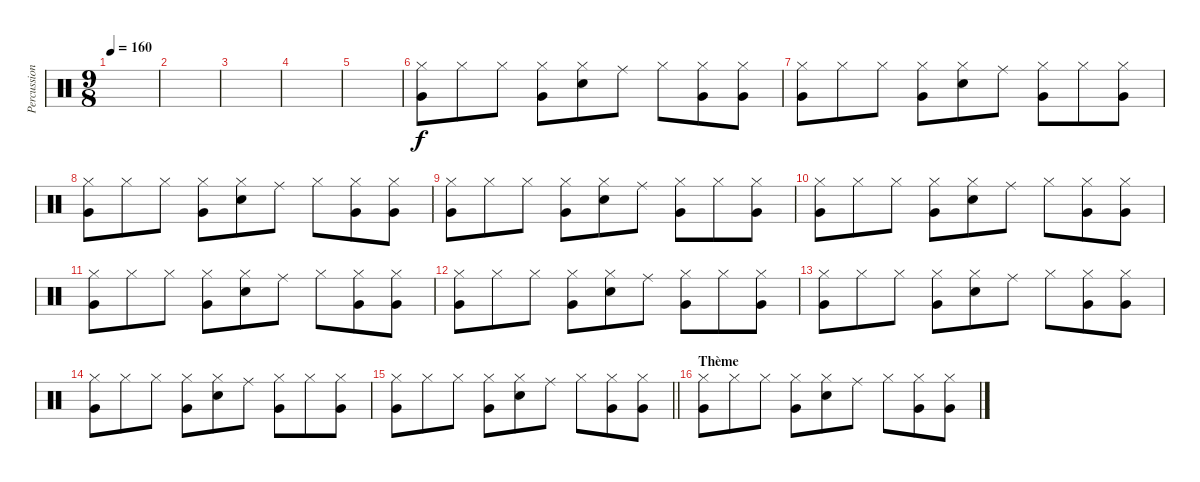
\track ("Percussions" "Percussion") {instrument percussion}
\staff {score}
\articulation defaults
\ts (9 8)
\tempo 160
\clef neutral
\ks c
|
|
|
|
|
("Hi-Hat (closed)" "Very Low Tom (hit)").8 "Hi-Hat (closed)".8 "Hi-Hat (closed)".8 ("Hi-Hat (closed)" "Very Low Tom (hit)").8 ("Hi-Hat (closed)" "Snare (hit) 2").8 "Ride (middle)".8 "Hi-Hat (closed)".8 ("Hi-Hat (closed)" "Very Low Tom (hit)").8 ("Hi-Hat (closed)" "Very Low Tom (hit)").8 |
("Hi-Hat (closed)" "Very Low Tom (hit)").8 "Hi-Hat (closed)".8 "Hi-Hat (closed)".8 ("Hi-Hat (closed)" "Very Low Tom (hit)").8 ("Hi-Hat (closed)" "Snare (hit) 2").8 "Ride (middle)".8 ("Hi-Hat (closed)" "Very Low Tom (hit)").8 "Hi-Hat (closed)".8 ("Hi-Hat (closed)" "Very Low Tom (hit)").8 |
("Hi-Hat (closed)" "Very Low Tom (hit)").8 "Hi-Hat (closed)".8 "Hi-Hat (closed)".8 ("Hi-Hat (closed)" "Very Low Tom (hit)").8 ("Hi-Hat (closed)" "Snare (hit) 2").8 "Ride (middle)".8 "Hi-Hat (closed)".8 ("Hi-Hat (closed)" "Very Low Tom (hit)").8 ("Hi-Hat (closed)" "Very Low Tom (hit)").8 |
("Hi-Hat (closed)" "Very Low Tom (hit)").8 "Hi-Hat (closed)".8 "Hi-Hat (closed)".8 ("Hi-Hat (closed)" "Very Low Tom (hit)").8 ("Hi-Hat (closed)" "Snare (hit) 2").8 "Ride (middle)".8 ("Hi-Hat (closed)" "Very Low Tom (hit)").8 "Hi-Hat (closed)".8 ("Hi-Hat (closed)" "Very Low Tom (hit)").8 |
("Hi-Hat (closed)" "Very Low Tom (hit)").8 "Hi-Hat (closed)".8 "Hi-Hat (closed)".8 ("Hi-Hat (closed)" "Very Low Tom (hit)").8 ("Hi-Hat (closed)" "Snare (hit) 2").8 "Ride (middle)".8 "Hi-Hat (closed)".8 ("Hi-Hat (closed)" "Very Low Tom (hit)").8 ("Hi-Hat (closed)" "Very Low Tom (hit)").8 |
("Hi-Hat (closed)" "Very Low Tom (hit)").8 "Hi-Hat (closed)".8 "Hi-Hat (closed)".8 ("Hi-Hat (closed)" "Very Low Tom (hit)").8 ("Hi-Hat (closed)" "Snare (hit) 2").8 "Ride (middle)".8 "Hi-Hat (closed)".8 ("Hi-Hat (closed)" "Very Low Tom (hit)").8 ("Hi-Hat (closed)" "Very Low Tom (hit)").8 |
("Hi-Hat (closed)" "Very Low Tom (hit)").8 "Hi-Hat (closed)".8 "Hi-Hat (closed)".8 ("Hi-Hat (closed)" "Very Low Tom (hit)").8 ("Hi-Hat (closed)" "Snare (hit) 2").8 "Ride (middle)".8 ("Hi-Hat (closed)" "Very Low Tom (hit)").8 "Hi-Hat (closed)".8 ("Hi-Hat (closed)" "Very Low Tom (hit)").8 |
("Hi-Hat (closed)" "Very Low Tom (hit)").8 "Hi-Hat (closed)".8 "Hi-Hat (closed)".8 ("Hi-Hat (closed)" "Very Low Tom (hit)").8 ("Hi-Hat (closed)" "Snare (hit) 2").8 "Ride (middle)".8 "Hi-Hat (closed)".8 ("Hi-Hat (closed)" "Very Low Tom (hit)").8 ("Hi-Hat (closed)" "Very Low Tom (hit)").8 |
("Hi-Hat (closed)" "Very Low Tom (hit)").8 "Hi-Hat (closed)".8 "Hi-Hat (closed)".8 ("Hi-Hat (closed)" "Very Low Tom (hit)").8 ("Hi-Hat (closed)" "Snare (hit) 2").8 "Ride (middle)".8 ("Hi-Hat (closed)" "Very Low Tom (hit)").8 "Hi-Hat (closed)".8 ("Hi-Hat (closed)" "Very Low Tom (hit)").8 |
\barLineRight lightlight
("Hi-Hat (closed)" "Very Low Tom (hit)").8 "Hi-Hat (closed)".8 "Hi-Hat (closed)".8 ("Hi-Hat (closed)" "Very Low Tom (hit)").8 ("Hi-Hat (closed)" "Snare (hit) 2").8 "Ride (middle)".8 "Hi-Hat (closed)".8 ("Hi-Hat (closed)" "Very Low Tom (hit)").8 ("Hi-Hat (closed)" "Very Low Tom (hit)").8 |
\section ("" "Thème")
("Hi-Hat (closed)" "Very Low Tom (hit)").8 "Hi-Hat (closed)".8 "Hi-Hat (closed)".8 ("Hi-Hat (closed)" "Very Low Tom (hit)").8 ("Hi-Hat (closed)" "Snare (hit) 2").8 "Ride (middle)".8 "Hi-Hat (closed)".8 ("Hi-Hat (closed)" "Very Low Tom (hit)").8 ("Hi-Hat (closed)" "Very Low Tom (hit)").8
